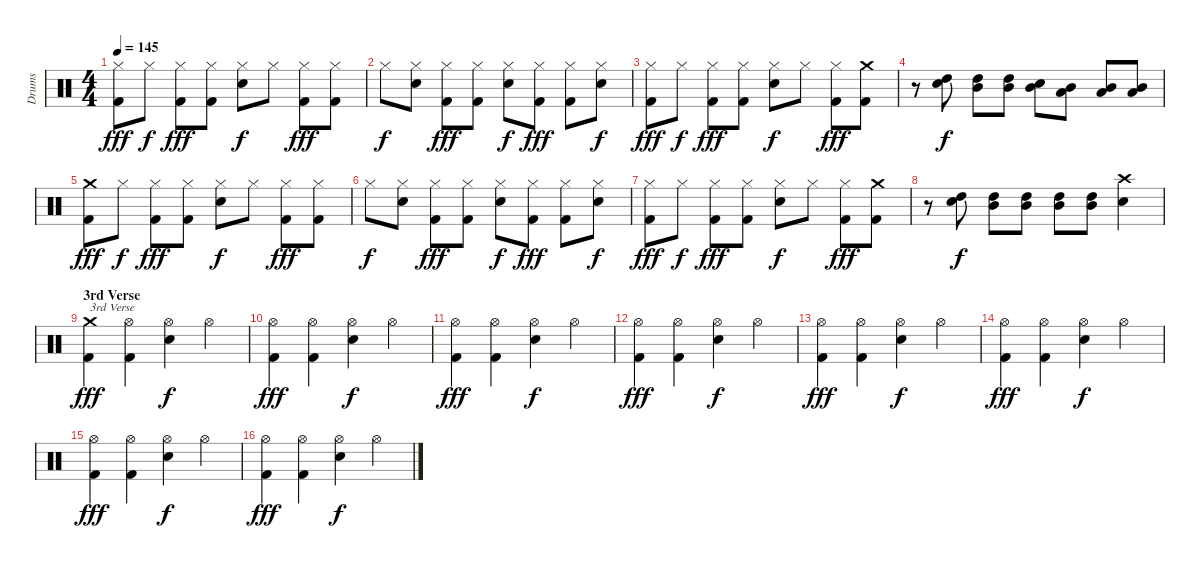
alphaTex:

\track ("Drums" "Drums") {instrument percussion}
\staff {score}
\articulation defaults
\ts (4 4)
\tempo 145
\clef neutral
\ks c
("Hi-Hat (closed)" "Kick (hit) 2").8{dy fff} "Hi-Hat (closed)".8{dy f} ("Hi-Hat (closed)" "Kick (hit) 2").8{dy fff} ("Hi-Hat (closed)" "Kick (hit) 2").8 ("Hi-Hat (closed)" "Snare (hit) 2").8{dy f} "Hi-Hat (closed)".8 ("Hi-Hat (closed)" "Kick (hit) 2").8{dy fff} ("Hi-Hat (closed)" "Kick (hit) 2").8 |
"Hi-Hat (closed)".8{dy f} ("Hi-Hat (closed)" "Snare (hit) 2").8 ("Hi-Hat (closed)" "Kick (hit) 2").8{dy fff} ("Hi-Hat (closed)" "Kick (hit) 2").8 ("Hi-Hat (closed)" "Snare (hit) 2").8{dy f} ("Hi-Hat (closed)" "Kick (hit) 2").8{dy fff} ("Hi-Hat (closed)" "Kick (hit) 2").8 ("Hi-Hat (closed)" "Snare (hit) 2").8{dy f} |
("Hi-Hat (closed)" "Kick (hit) 2").8{dy fff} "Hi-Hat (closed)".8{dy f} ("Hi-Hat (closed)" "Kick (hit) 2").8{dy fff} ("Hi-Hat (closed)" "Kick (hit) 2").8 ("Hi-Hat (closed)" "Snare (hit) 2").8{dy f} "Hi-Hat (closed)".8 ("Hi-Hat (closed)" "Kick (hit) 2").8{dy fff} ("Crash medium (hit)" "Kick (hit) 2").8 |
r.8 ("Snare (hit) 2" "High Tom (hit)").8{dy f} ("High Tom (hit)" "Mid Tom (hit)").8 ("High Tom (hit)" "Mid Tom (hit)").8 ("Snare (hit) 2" "Mid Tom (hit)").8 ("Mid Tom (hit)" "Low Tom (hit)").8 ("Mid Tom (hit)" "Low Tom (hit)").8 ("Mid Tom (hit)" "Low Tom (hit)").8 |
("Crash medium (hit)" "Kick (hit) 2").8{dy fff} "Hi-Hat (closed)".8{dy f} ("Hi-Hat (closed)" "Kick (hit) 2").8{dy fff} ("Hi-Hat (closed)" "Kick (hit) 2").8 ("Hi-Hat (closed)" "Snare (hit) 2").8{dy f} "Hi-Hat (closed)".8 ("Hi-Hat (closed)" "Kick (hit) 2").8{dy fff} ("Hi-Hat (closed)" "Kick (hit) 2").8 |
"Hi-Hat (closed)".8{dy f} ("Hi-Hat (closed)" "Snare (hit) 2").8 ("Hi-Hat (closed)" "Kick (hit) 2").8{dy fff} ("Hi-Hat (closed)" "Kick (hit) 2").8 ("Hi-Hat (closed)" "Snare (hit) 2").8{dy f} ("Hi-Hat (closed)" "Kick (hit) 2").8{dy fff} ("Hi-Hat (closed)" "Kick (hit) 2").8 ("Hi-Hat (closed)" "Snare (hit) 2").8{dy f} |
("Hi-Hat (closed)" "Kick (hit) 2").8{dy fff} "Hi-Hat (closed)".8{dy f} ("Hi-Hat (closed)" "Kick (hit) 2").8{dy fff} ("Hi-Hat (closed)" "Kick (hit) 2").8 ("Hi-Hat (closed)" "Snare (hit) 2").8{dy f} "Hi-Hat (closed)".8 ("Hi-Hat (closed)" "Kick (hit) 2").8{dy fff} ("Crash medium (hit)" "Kick (hit) 2").8 |
r.8 ("Snare (hit) 2" "High Tom (hit)").8{dy f} ("High Tom (hit)" "Mid Tom (hit)").8 ("High Tom (hit)" "Mid Tom (hit)").8 ("High Tom (hit)" "Mid Tom (hit)").8 ("High Tom (hit)" "Mid Tom (hit)").8 ("Crash high (hit)" "Snare (hit) 2").4 |
\section ("" "3rd Verse")
("Crash medium (hit)" "Kick (hit) 2").4{txt "3rd Verse" dy fff} ("Hi-Hat (open)" "Kick (hit) 2").4 ("Hi-Hat (open)" "Snare (hit) 2").4{dy f} "Hi-Hat (open)".4 |
("Hi-Hat (open)" "Kick (hit) 2").4{dy fff} ("Hi-Hat (open)" "Kick (hit) 2").4 ("Hi-Hat (open)" "Snare (hit) 2").4{dy f} "Hi-Hat (open)".4 |
("Hi-Hat (open)" "Kick (hit) 2").4{dy fff} ("Hi-Hat (open)" "Kick (hit) 2").4 ("Hi-Hat (open)" "Snare (hit) 2").4{dy f} "Hi-Hat (open)".4 |
("Hi-Hat (open)" "Kick (hit) 2").4{dy fff} ("Hi-Hat (open)" "Kick (hit) 2").4 ("Hi-Hat (open)" "Snare (hit) 2").4{dy f} "Hi-Hat (open)".4 |
("Hi-Hat (open)" "Kick (hit) 2").4{dy fff} ("Hi-Hat (open)" "Kick (hit) 2").4 ("Hi-Hat (open)" "Snare (hit) 2").4{dy f} "Hi-Hat (open)".4 |
("Hi-Hat (open)" "Kick (hit) 2").4{dy fff} ("Hi-Hat (open)" "Kick (hit) 2").4 ("Hi-Hat (open)" "Snare (hit) 2").4{dy f} "Hi-Hat (open)".4 |
("Hi-Hat (open)" "Kick (hit) 2").4{dy fff} ("Hi-Hat (open)" "Kick (hit) 2").4 ("Hi-Hat (open)" "Snare (hit) 2").4{dy f} "Hi-Hat (open)".4 |
("Hi-Hat (open)" "Kick (hit) 2").4{dy fff} ("Hi-Hat (open)" "Kick (hit) 2").4 ("Hi-Hat (open)" "Snare (hit) 2").4{dy f} "Hi-Hat (open)".4
